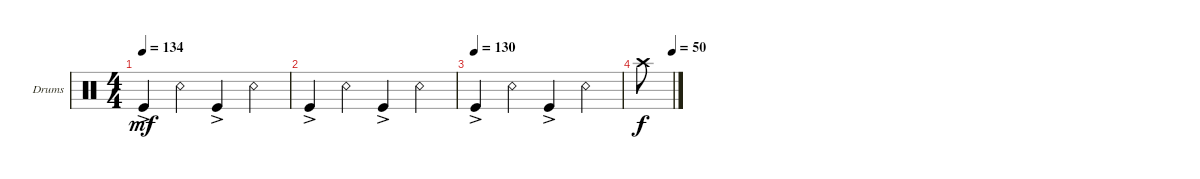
\defaultSystemsLayout 4
\bracketExtendMode groupsimilarinstruments
\firstSystemTrackNameOrientation horizontal
\otherSystemsTrackNameOrientation horizontal
\track ("Drumkit" "Drums") {instrument percussion}
\staff {score}
\articulation defaults
\ts (4 4)
\tempo 134
\clef neutral
\ks c "Kick (hit)"{ac}.4{dy mf} "Snare (rim shot)".4 "Kick (hit)"{ac}.4 "Snare (rim shot)".4
|
"Kick (hit)"{ac}.4 "Snare (rim shot)".4 "Kick (hit)"{ac}.4 "Snare (rim shot)".4 |
\tempo (130)
"Kick (hit)"{ac}.4 "Snare (rim shot)".4 "Kick (hit)"{ac}.4 "Snare (rim shot)".4 |
\tempo (50 1)
"Crash high (hit)".8{dy f}
